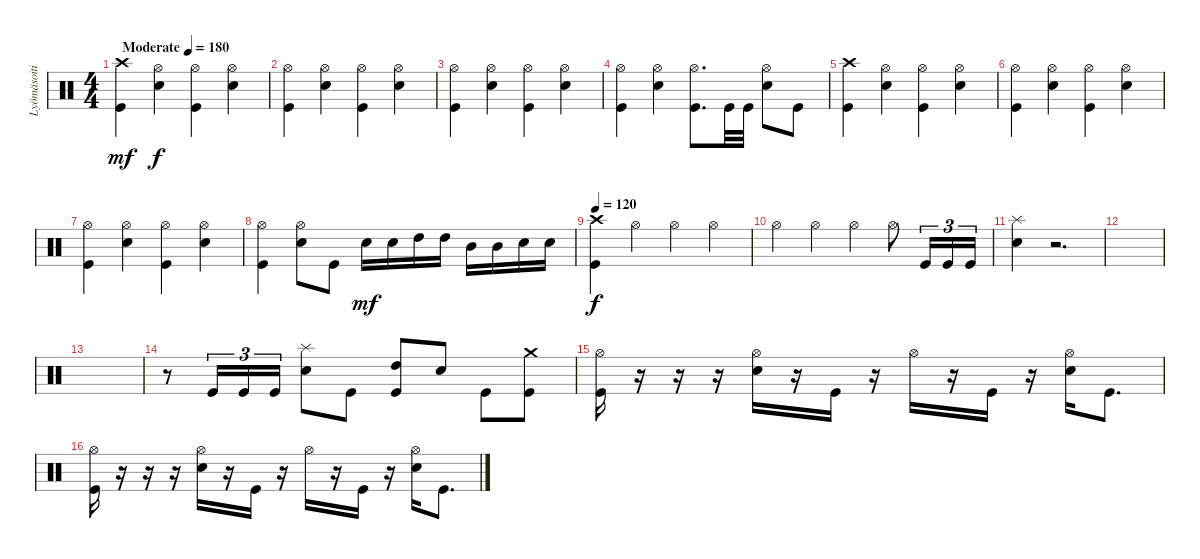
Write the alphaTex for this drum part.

\track ("Lyömäsoitin" "Lyömäsoiti") {instrument percussion}
\staff {score}
\articulation defaults
\ts (4 4)
\tempo (180 "Moderate")
\clef neutral
\ks c
("Crash high (hit)" "Kick (hit)").4{dy mf} ("Hi-Hat (open)" "Snare (hit) 2").4{dy f} ("Hi-Hat (open)" "Kick (hit)").4 ("Hi-Hat (open)" "Snare (hit) 2").4 |
("Hi-Hat (open)" "Kick (hit)").4 ("Hi-Hat (open)" "Snare (hit) 2").4 ("Hi-Hat (open)" "Kick (hit)").4 ("Hi-Hat (open)" "Snare (hit) 2").4 |
("Hi-Hat (open)" "Kick (hit)").4 ("Hi-Hat (open)" "Snare (hit) 2").4 ("Hi-Hat (open)" "Kick (hit)").4 ("Hi-Hat (open)" "Snare (hit) 2").4 |
("Hi-Hat (open)" "Kick (hit)").4 ("Hi-Hat (open)" "Snare (hit) 2").4 ("Hi-Hat (open)" "Kick (hit)").8{d} "Kick (hit)".32 "Kick (hit)".32 ("Hi-Hat (open)" "Snare (hit) 2").8 "Kick (hit)".8 |
("Crash high (hit)" "Kick (hit)").4 ("Hi-Hat (open)" "Snare (hit) 2").4 ("Hi-Hat (open)" "Kick (hit)").4 ("Hi-Hat (open)" "Snare (hit) 2").4 |
("Hi-Hat (open)" "Kick (hit)").4 ("Hi-Hat (open)" "Snare (hit) 2").4 ("Hi-Hat (open)" "Kick (hit)").4 ("Hi-Hat (open)" "Snare (hit) 2").4 |
("Hi-Hat (open)" "Kick (hit)").4 ("Hi-Hat (open)" "Snare (hit) 2").4 ("Hi-Hat (open)" "Kick (hit)").4 ("Hi-Hat (open)" "Snare (hit) 2").4 |
("Hi-Hat (open)" "Kick (hit)").4 ("Hi-Hat (open)" "Snare (hit) 2").8 "Kick (hit)".8 "Snare (hit) 2".16{dy mf} "Snare (hit) 2".16 "High Tom (hit)".16 "High Tom (hit)".16 "Mid Tom (hit)".16 "Mid Tom (hit)".16 "Snare (hit) 2".16 "Snare (hit) 2".16 |
\tempo 120
("Crash high (hit)" "Kick (hit)").4{dy f} "Hi-Hat (open)".4 "Hi-Hat (open)".4 "Hi-Hat (open)".4 |
"Hi-Hat (open)".4 "Hi-Hat (open)".4 "Hi-Hat (open)".4 "Hi-Hat (open)".8 "Kick (hit)".16{tu (3 2)} "Kick (hit)".16{tu (3 2)} "Kick (hit)".16{tu (3 2)} |
("Splash (hit)" "Snare (hit) 2").4 r.2{d} |
|
|
r.8 "Kick (hit)".16{tu (3 2)} "Kick (hit)".16{tu (3 2)} "Kick (hit)".16{tu (3 2)} ("Splash (hit)" "Snare (hit) 2").8 "Kick (hit)".8 ("High Tom (hit)" "Kick (hit)").8 "Snare (hit) 2".8 "Kick (hit)".8 ("Crash medium (hit)" "Kick (hit)").8 |
("Hi-Hat (open)" "Kick (hit)").16 r.16 r.16 r.16 ("Hi-Hat (open)" "Snare (hit) 2").16 r.16 "Kick (hit)".16 r.16 "Hi-Hat (open)".16 r.16 "Kick (hit)".16 r.16 ("Hi-Hat (open)" "Snare (hit) 2").16 "Kick (hit)".8{d} |
("Hi-Hat (open)" "Kick (hit)").16 r.16 r.16 r.16 ("Hi-Hat (open)" "Snare (hit) 2").16 r.16 "Kick (hit)".16 r.16 "Hi-Hat (open)".16 r.16 "Kick (hit)".16 r.16 ("Hi-Hat (open)" "Snare (hit) 2").16 "Kick (hit)".8{d}
